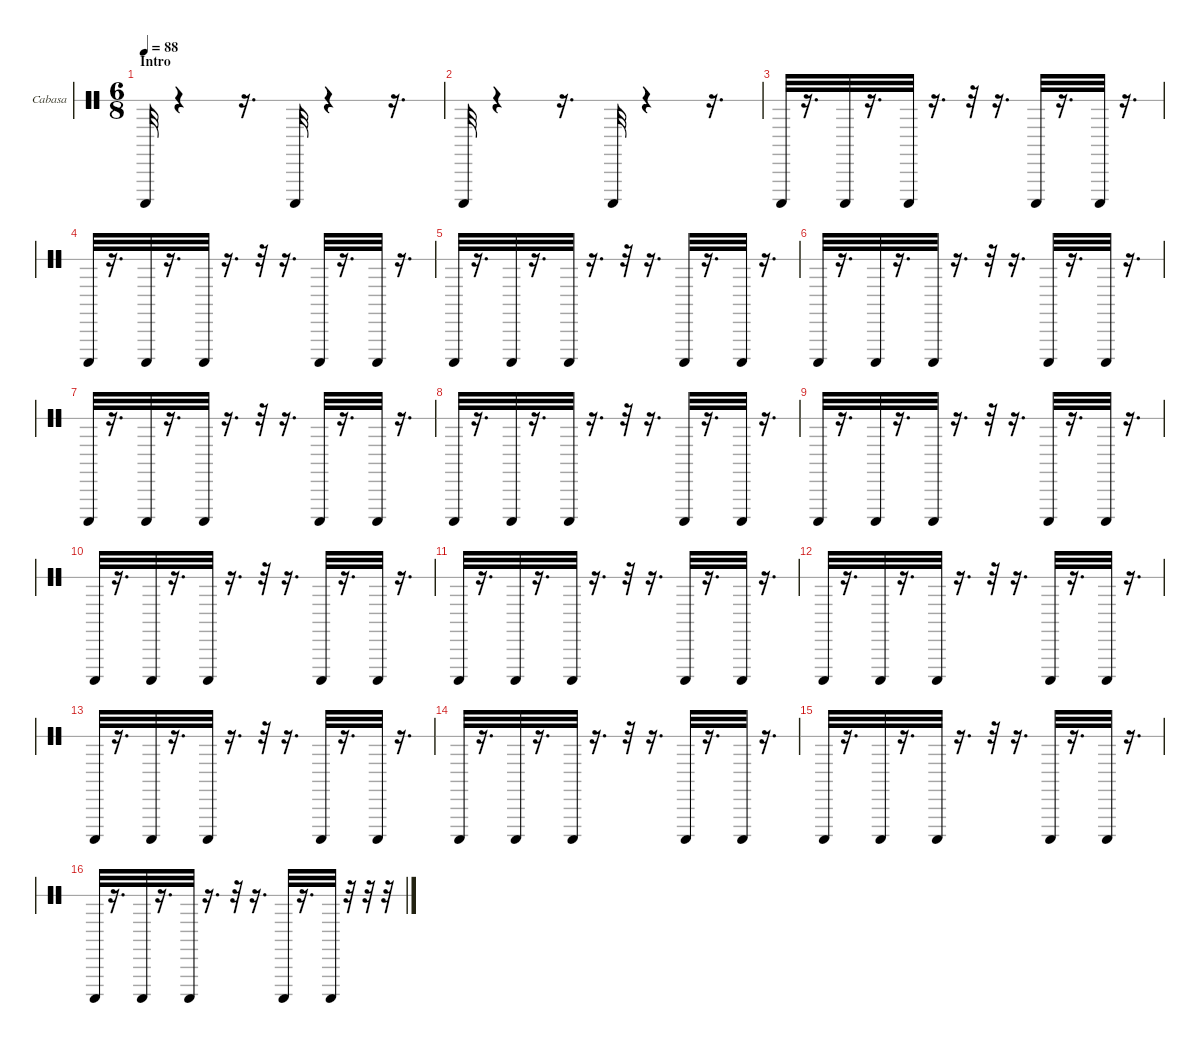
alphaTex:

\hideDynamics
\bracketExtendMode nobrackets
\firstSystemTrackNameOrientation horizontal
\otherSystemsTrackNameOrientation horizontal
\track ("Cabasa" "Cabasa") {instrument percussion}
\staff {score 1}
\articulation defaults
\ts (6 8)
\section ("" "Intro")
\tempo 88
\clef neutral
\ks c "Cabasa (hit)".32{dy p}
r.4 r.16{d} "Cabasa (hit)".32 r.4 r.16{d} |
"Cabasa (hit)".32 r.4 r.16{d} "Cabasa (hit)".32 r.4 r.16{d} |
"Cabasa (hit)".32{dy fff} r.16{d} "Cabasa (hit)".32{dy mf} r.16{d} "Cabasa (hit)".32{dy mp} r.16{d} r.32 r.16{d} "Cabasa (hit)".32{dy mf} r.16{d} "Cabasa (hit)".32{dy mp} r.16{d} |
"Cabasa (hit)".32{dy fff} r.16{d} "Cabasa (hit)".32{dy mf} r.16{d} "Cabasa (hit)".32{dy mp} r.16{d} r.32 r.16{d} "Cabasa (hit)".32{dy mf} r.16{d} "Cabasa (hit)".32{dy mp} r.16{d} |
"Cabasa (hit)".32{dy fff} r.16{d} "Cabasa (hit)".32{dy mf} r.16{d} "Cabasa (hit)".32{dy mp} r.16{d} r.32 r.16{d} "Cabasa (hit)".32{dy mf} r.16{d} "Cabasa (hit)".32{dy mp} r.16{d} |
"Cabasa (hit)".32{dy fff} r.16{d} "Cabasa (hit)".32{dy mf} r.16{d} "Cabasa (hit)".32{dy mp} r.16{d} r.32 r.16{d} "Cabasa (hit)".32{dy mf} r.16{d} "Cabasa (hit)".32{dy mp} r.16{d} |
"Cabasa (hit)".32{dy fff} r.16{d} "Cabasa (hit)".32{dy mf} r.16{d} "Cabasa (hit)".32{dy mp} r.16{d} r.32 r.16{d} "Cabasa (hit)".32{dy mf} r.16{d} "Cabasa (hit)".32{dy mp} r.16{d} |
"Cabasa (hit)".32{dy fff} r.16{d} "Cabasa (hit)".32{dy mf} r.16{d} "Cabasa (hit)".32{dy mp} r.16{d} r.32 r.16{d} "Cabasa (hit)".32{dy mf} r.16{d} "Cabasa (hit)".32{dy mp} r.16{d} |
"Cabasa (hit)".32{dy fff} r.16{d} "Cabasa (hit)".32{dy mf} r.16{d} "Cabasa (hit)".32{dy mp} r.16{d} r.32 r.16{d} "Cabasa (hit)".32{dy mf} r.16{d} "Cabasa (hit)".32{dy mp} r.16{d} |
"Cabasa (hit)".32{dy fff} r.16{d} "Cabasa (hit)".32{dy mf} r.16{d} "Cabasa (hit)".32{dy mp} r.16{d} r.32 r.16{d} "Cabasa (hit)".32{dy mf} r.16{d} "Cabasa (hit)".32{dy mp} r.16{d} |
"Cabasa (hit)".32{dy fff} r.16{d} "Cabasa (hit)".32{dy mf} r.16{d} "Cabasa (hit)".32{dy mp} r.16{d} r.32 r.16{d} "Cabasa (hit)".32{dy mf} r.16{d} "Cabasa (hit)".32{dy mp} r.16{d} |
"Cabasa (hit)".32{dy fff} r.16{d} "Cabasa (hit)".32{dy mf} r.16{d} "Cabasa (hit)".32{dy mp} r.16{d} r.32 r.16{d} "Cabasa (hit)".32{dy mf} r.16{d} "Cabasa (hit)".32{dy mp} r.16{d} |
"Cabasa (hit)".32{dy fff} r.16{d} "Cabasa (hit)".32{dy mf} r.16{d} "Cabasa (hit)".32{dy mp} r.16{d} r.32 r.16{d} "Cabasa (hit)".32{dy mf} r.16{d} "Cabasa (hit)".32{dy mp} r.16{d} |
"Cabasa (hit)".32{dy fff} r.16{d} "Cabasa (hit)".32{dy mf} r.16{d} "Cabasa (hit)".32{dy mp} r.16{d} r.32 r.16{d} "Cabasa (hit)".32{dy mf} r.16{d} "Cabasa (hit)".32{dy mp} r.16{d} |
"Cabasa (hit)".32{dy fff} r.16{d} "Cabasa (hit)".32{dy mf} r.16{d} "Cabasa (hit)".32{dy mp} r.16{d} r.32 r.16{d} "Cabasa (hit)".32{dy mf} r.16{d} "Cabasa (hit)".32{dy mp} r.16{d} |
"Cabasa (hit)".32{dy fff} r.16{d} "Cabasa (hit)".32{dy mf} r.16{d} "Cabasa (hit)".32{dy mp} r.16{d} r.32 r.16{d} "Cabasa (hit)".32{dy mf} r.16{d} "Cabasa (hit)".32{dy f} r.32 r.32 r.32
